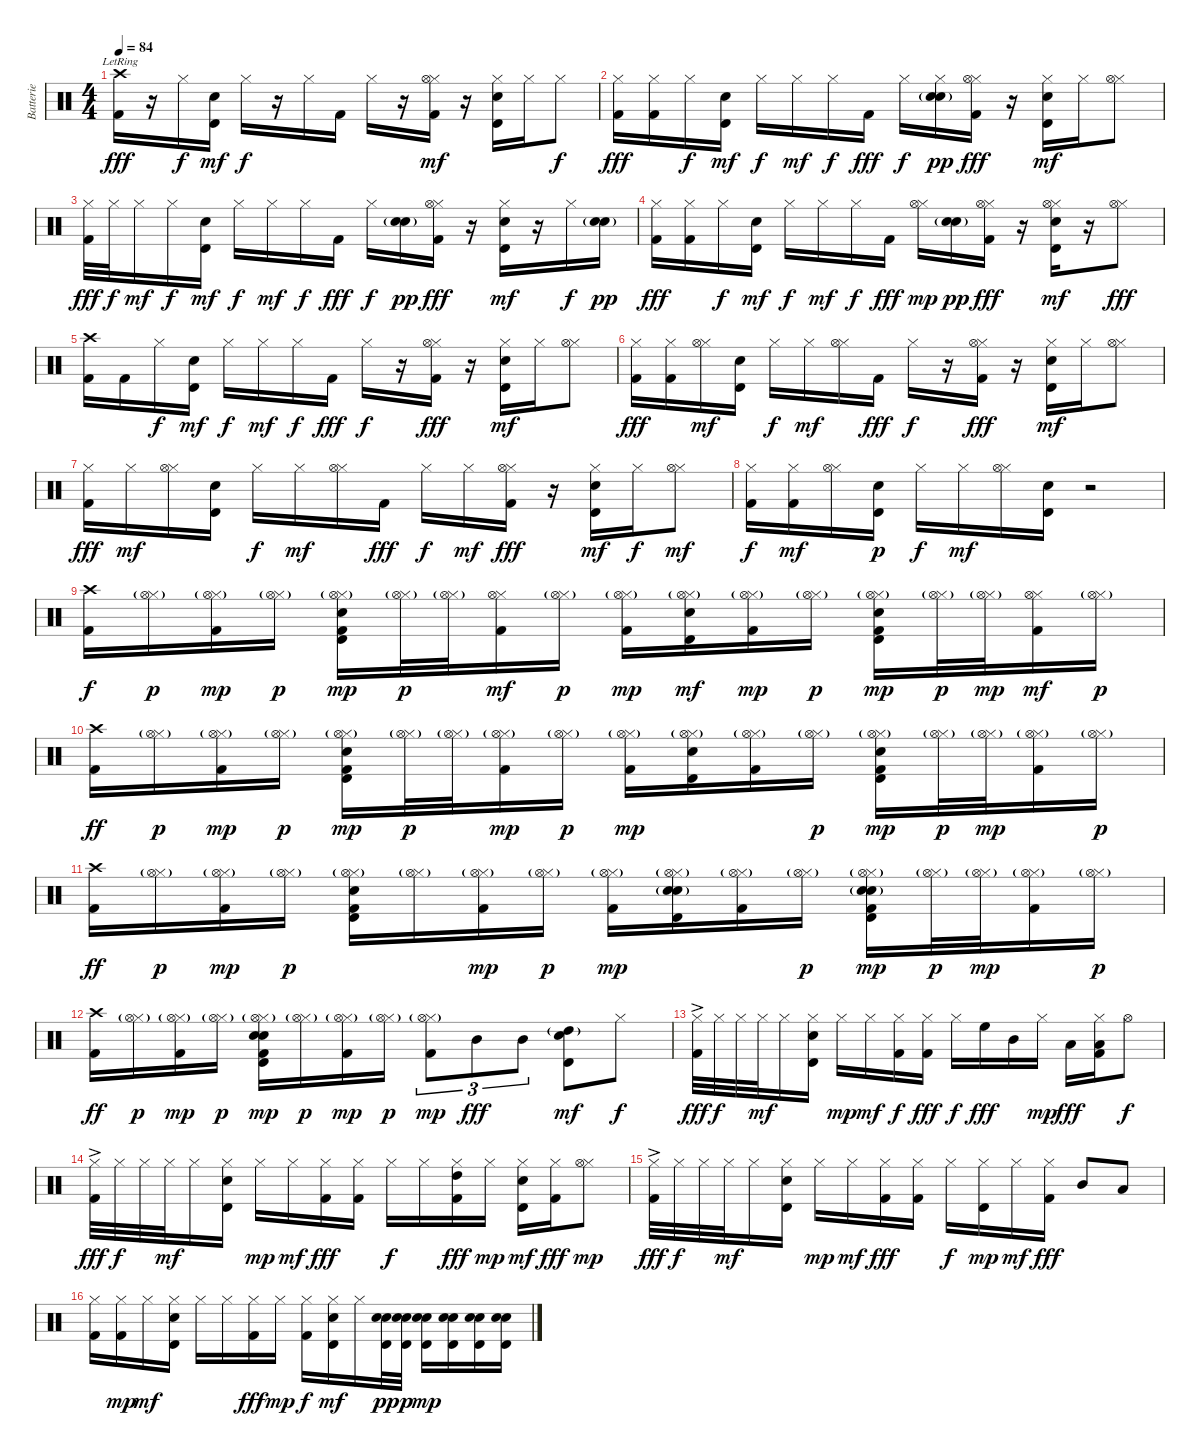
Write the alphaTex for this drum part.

\track ("Batterie" "Batterie") {instrument percussion}
\staff {score}
\articulation defaults
\ts (4 4)
\tempo 84
\clef neutral
\ks c
("Crash high (hit)"{lr} "Kick (hit) 2").16{dy fff} r.16 "Hi-Hat (closed)".16{dy f} ("Electric Snare (hit)" "Timbale high (hit)").16{dy mf} "Hi-Hat (closed)".16{dy f} r.16 "Hi-Hat (closed)".16 "Kick (hit) 2".16 "Hi-Hat (closed)".16 r.16 ("Hi-Hat (closed)" "Hi-Hat (open)" "Kick (hit) 2").16{dy mf} r.16 ("Hi-Hat (closed)" "Electric Snare (hit)" "Timbale high (hit)").16 "Hi-Hat (closed)".16 "Hi-Hat (closed)".8{dy f} |
("Hi-Hat (closed)" "Kick (hit) 2").16{dy fff} ("Hi-Hat (closed)" "Kick (hit) 2").16 "Hi-Hat (closed)".16{dy f} ("Electric Snare (hit)" "Timbale high (hit)").16{dy mf} "Hi-Hat (closed)".16{dy f} "Hi-Hat (closed)".16{dy mf} "Hi-Hat (closed)".16{dy f} "Kick (hit) 2".16{dy fff} "Hi-Hat (closed)".16{dy f} ("Hi-Hat (closed)" "Electric Snare (hit)"{g} "Snare (hit) 2"{g}).16{dy pp} ("Hi-Hat (closed)" "Hi-Hat (open)" "Kick (hit) 2").16{dy fff} r.16 ("Hi-Hat (closed)" "Electric Snare (hit)" "Timbale high (hit)").16{dy mf} "Hi-Hat (closed)".16 ("Hi-Hat (closed)" "Hi-Hat (open)").8 |
("Hi-Hat (closed)" "Kick (hit) 2").32{dy fff} "Hi-Hat (closed)".32{dy f} "Hi-Hat (closed)".16{dy mf} "Hi-Hat (closed)".16{dy f} ("Electric Snare (hit)" "Timbale high (hit)").16{dy mf} "Hi-Hat (closed)".16{dy f} "Hi-Hat (closed)".16{dy mf} "Hi-Hat (closed)".16{dy f} "Kick (hit) 2".16{dy fff} "Hi-Hat (closed)".16{dy f} ("Electric Snare (hit)"{g} "Snare (hit) 2"{g}).16{dy pp} ("Hi-Hat (closed)" "Hi-Hat (open)" "Kick (hit) 2").16{dy fff} r.16 ("Hi-Hat (closed)" "Electric Snare (hit)" "Timbale high (hit)").16{dy mf} r.16 "Hi-Hat (closed)".16{dy f} ("Electric Snare (hit)"{g} "Snare (hit) 2"{g}).16{dy pp} |
("Hi-Hat (closed)" "Kick (hit) 2").16{dy fff} ("Hi-Hat (closed)" "Kick (hit) 2").16 "Hi-Hat (closed)".16{dy f} ("Electric Snare (hit)" "Timbale high (hit)").16{dy mf} "Hi-Hat (closed)".16{dy f} "Hi-Hat (closed)".16{dy mf} "Hi-Hat (closed)".16{dy f} "Kick (hit) 2".16{dy fff} ("Hi-Hat (closed)" "Hi-Hat (open)").16{dy mp} ("Electric Snare (hit)"{g} "Snare (hit) 2"{g}).16{dy pp} ("Hi-Hat (closed)" "Hi-Hat (open)" "Kick (hit) 2").16{dy fff} r.16 ("Hi-Hat (closed)" "Hi-Hat (open)" "Electric Snare (hit)" "Timbale high (hit)").16{dy mf} r.16 ("Hi-Hat (closed)" "Hi-Hat (open)").8{dy fff} |
("Crash high (hit)" "Kick (hit) 2").16 "Kick (hit) 2".16 "Hi-Hat (closed)".16{dy f} ("Electric Snare (hit)" "Timbale high (hit)").16{dy mf} "Hi-Hat (closed)".16{dy f} "Hi-Hat (closed)".16{dy mf} "Hi-Hat (closed)".16{dy f} "Kick (hit) 2".16{dy fff} "Hi-Hat (closed)".16{dy f} r.16 ("Hi-Hat (closed)" "Hi-Hat (open)" "Kick (hit) 2").16{dy fff} r.16 ("Hi-Hat (closed)" "Electric Snare (hit)" "Timbale high (hit)").16{dy mf} "Hi-Hat (closed)".16 ("Hi-Hat (closed)" "Hi-Hat (open)").8 |
("Hi-Hat (closed)" "Kick (hit) 2").16{dy fff} ("Hi-Hat (closed)" "Kick (hit) 2").16 ("Hi-Hat (closed)" "Hi-Hat (open)").16{dy mf} ("Electric Snare (hit)" "Timbale high (hit)").16 "Hi-Hat (closed)".16{dy f} "Hi-Hat (closed)".16{dy mf} ("Hi-Hat (closed)" "Hi-Hat (open)").16 "Kick (hit) 2".16{dy fff} "Hi-Hat (closed)".16{dy f} r.16 ("Hi-Hat (closed)" "Hi-Hat (open)" "Kick (hit) 2").16{dy fff} r.16 ("Hi-Hat (closed)" "Electric Snare (hit)" "Timbale high (hit)").16{dy mf} "Hi-Hat (closed)".16 ("Hi-Hat (closed)" "Hi-Hat (open)").8 |
("Hi-Hat (closed)" "Kick (hit) 2").16{dy fff} "Hi-Hat (closed)".16{dy mf} ("Hi-Hat (closed)" "Hi-Hat (open)").16 ("Electric Snare (hit)" "Timbale high (hit)").16 "Hi-Hat (closed)".16{dy f} "Hi-Hat (closed)".16{dy mf} ("Hi-Hat (closed)" "Hi-Hat (open)").16 "Kick (hit) 2".16{dy fff} "Hi-Hat (closed)".16{dy f} "Hi-Hat (closed)".16{dy mf} ("Hi-Hat (closed)" "Hi-Hat (open)" "Kick (hit) 2").16{dy fff} r.16 ("Hi-Hat (closed)" "Electric Snare (hit)" "Timbale high (hit)").16{dy mf} "Hi-Hat (closed)".16{dy f} ("Hi-Hat (closed)" "Hi-Hat (open)").8{dy mf} |
("Hi-Hat (closed)" "Kick (hit) 2").16{dy f} ("Hi-Hat (closed)" "Kick (hit) 2").16{dy mf} ("Hi-Hat (closed)" "Hi-Hat (open)").16 ("Electric Snare (hit)" "Timbale high (hit)").16{dy p} "Hi-Hat (closed)".16{dy f} "Hi-Hat (closed)".16{dy mf} ("Hi-Hat (closed)" "Hi-Hat (open)").16 ("Electric Snare (hit)" "Timbale high (hit)").16 r.2 |
("Crash high (hit)" "Kick (hit) 2").16{dy f} ("Hi-Hat (closed)" "Hi-Hat (open)"{g}).16{dy p} ("Hi-Hat (closed)" "Hi-Hat (open)"{g} "Kick (hit) 2").16{dy mp} ("Hi-Hat (closed)" "Hi-Hat (open)"{g}).16{dy p} ("Hi-Hat (closed)" "Hi-Hat (open)"{g} "Electric Snare (hit)" "Timbale high (hit)" "Kick (hit) 2").16{dy mp} ("Hi-Hat (closed)" "Hi-Hat (open)"{g}).32{dy p} ("Hi-Hat (closed)" "Hi-Hat (open)"{g}).32 ("Hi-Hat (closed)" "Hi-Hat (open)" "Kick (hit) 2").16{dy mf} ("Hi-Hat (closed)" "Hi-Hat (open)"{g}).16{dy p} ("Hi-Hat (closed)" "Hi-Hat (open)"{g} "Kick (hit) 2").16{dy mp} ("Hi-Hat (closed)" "Hi-Hat (open)"{g} "Electric Snare (hit)" "Timbale high (hit)").16{dy mf} ("Hi-Hat (closed)" "Hi-Hat (open)"{g} "Kick (hit) 2").16{dy mp} ("Hi-Hat (closed)" "Hi-Hat (open)"{g}).16{dy p} ("Hi-Hat (closed)" "Hi-Hat (open)"{g} "Electric Snare (hit)" "Timbale high (hit)" "Kick (hit) 2").16{dy mp} ("Hi-Hat (closed)" "Hi-Hat (open)"{g}).32{dy p} ("Hi-Hat (closed)" "Hi-Hat (open)"{g}).32{dy mp} ("Hi-Hat (closed)" "Hi-Hat (open)" "Kick (hit) 2").16{dy mf} ("Hi-Hat (closed)" "Hi-Hat (open)"{g}).16{dy p} |
("Crash high (hit)" "Kick (hit) 2").16{dy ff} ("Hi-Hat (closed)" "Hi-Hat (open)"{g}).16{dy p} ("Hi-Hat (closed)" "Hi-Hat (open)"{g} "Kick (hit) 2").16{dy mp} ("Hi-Hat (closed)" "Hi-Hat (open)"{g}).16{dy p} ("Hi-Hat (closed)" "Hi-Hat (open)"{g} "Electric Snare (hit)" "Timbale high (hit)" "Kick (hit) 2").16{dy mp} ("Hi-Hat (closed)" "Hi-Hat (open)"{g}).32{dy p} ("Hi-Hat (closed)" "Hi-Hat (open)"{g}).32 ("Hi-Hat (closed)" "Hi-Hat (open)"{g} "Kick (hit) 2").16{dy mp} ("Hi-Hat (closed)" "Hi-Hat (open)"{g}).16{dy p} ("Hi-Hat (closed)" "Hi-Hat (open)"{g} "Kick (hit) 2").16{dy mp} ("Hi-Hat (closed)" "Hi-Hat (open)"{g} "Electric Snare (hit)" "Timbale high (hit)").16 ("Hi-Hat (closed)" "Hi-Hat (open)"{g} "Kick (hit) 2").16 ("Hi-Hat (closed)" "Hi-Hat (open)"{g}).16{dy p} ("Hi-Hat (closed)" "Hi-Hat (open)"{g} "Electric Snare (hit)" "Timbale high (hit)" "Kick (hit) 2").16{dy mp} ("Hi-Hat (closed)" "Hi-Hat (open)"{g}).32{dy p} ("Hi-Hat (closed)" "Hi-Hat (open)"{g}).32{dy mp} ("Hi-Hat (closed)" "Hi-Hat (open)"{g} "Kick (hit) 2").16 ("Hi-Hat (closed)" "Hi-Hat (open)"{g}).16{dy p} |
("Crash high (hit)" "Kick (hit) 2").16{dy ff} ("Hi-Hat (closed)" "Hi-Hat (open)"{g}).16{dy p} ("Hi-Hat (closed)" "Hi-Hat (open)"{g} "Kick (hit) 2").16{dy mp} ("Hi-Hat (closed)" "Hi-Hat (open)"{g}).16{dy p} ("Hi-Hat (closed)" "Hi-Hat (open)"{g} "Electric Snare (hit)" "Timbale high (hit)" "Kick (hit) 2").16 ("Hi-Hat (closed)" "Hi-Hat (open)"{g}).16 ("Hi-Hat (closed)" "Hi-Hat (open)"{g} "Kick (hit) 2").16{dy mp} ("Hi-Hat (closed)" "Hi-Hat (open)"{g}).16{dy p} ("Hi-Hat (closed)" "Hi-Hat (open)"{g} "Kick (hit) 2").16{dy mp} ("Hi-Hat (closed)" "Hi-Hat (open)"{g} "Electric Snare (hit)" "Timbale high (hit)" "Snare (hit) 2"{g}).16 ("Hi-Hat (closed)" "Hi-Hat (open)"{g} "Kick (hit) 2").16 ("Hi-Hat (closed)" "Hi-Hat (open)"{g}).16{dy p} ("Hi-Hat (closed)" "Hi-Hat (open)"{g} "Electric Snare (hit)" "Timbale high (hit)" "Snare (hit) 2"{g} "Kick (hit) 2").16{dy mp} ("Hi-Hat (closed)" "Hi-Hat (open)"{g}).32{dy p} ("Hi-Hat (closed)" "Hi-Hat (open)"{g}).32{dy mp} ("Hi-Hat (closed)" "Hi-Hat (open)"{g} "Kick (hit) 2").16 ("Hi-Hat (closed)" "Hi-Hat (open)"{g}).16{dy p} |
("Crash high (hit)" "Kick (hit) 2").16{dy ff} ("Hi-Hat (closed)" "Hi-Hat (open)"{g}).16{dy p} ("Hi-Hat (closed)" "Hi-Hat (open)"{g} "Kick (hit) 2").16{dy mp} ("Hi-Hat (closed)" "Hi-Hat (open)"{g}).16{dy p} ("Hi-Hat (closed)" "Hi-Hat (open)"{g} "Electric Snare (hit)" "Timbale high (hit)" "Snare (hit) 2" "Kick (hit) 2").16{dy mp} ("Hi-Hat (closed)" "Hi-Hat (open)"{g}).16{dy p} ("Hi-Hat (closed)" "Hi-Hat (open)"{g} "Kick (hit) 2").16{dy mp} ("Hi-Hat (closed)" "Hi-Hat (open)"{g}).16{dy p} ("Hi-Hat (closed)" "Hi-Hat (open)"{g} "Kick (hit) 2").8{tu (3 2) dy mp} "Mid Tom (hit)".8{tu (3 2) dy fff} "Mid Tom (hit)".8{tu (3 2)} ("High Tom (hit)"{g} "Electric Snare (hit)" "Timbale high (hit)").8{dy mf} "Hi-Hat (closed)".8{dy f} |
("Hi-Hat (closed)"{ac} "Kick (hit) 2").32{dy fff} "Hi-Hat (closed)".32{dy f} "Hi-Hat (closed)".32 "Hi-Hat (closed)".32{dy mf} "Hi-Hat (closed)".16 ("Hi-Hat (closed)" "Electric Snare (hit)" "Timbale high (hit)").16 "Hi-Hat (closed)".16{dy mp} "Hi-Hat (closed)".16{dy mf} ("Hi-Hat (closed)" "Kick (hit) 2").16{dy f} ("Hi-Hat (closed)" "Kick (hit) 2").16{dy fff} "Hi-Hat (closed)".16{dy f} "High Floor Tom (hit)".16{dy fff} "Mid Tom (hit)".16 "Hi-Hat (closed)".16{dy mp} "Low Tom (hit)".16{dy fff} ("Hi-Hat (closed)" "Low Floor Tom (hit)" "Kick (hit) 2").16 "Hi-Hat (open)".8{dy f} |
("Hi-Hat (closed)"{ac} "Kick (hit) 2").32{dy fff} "Hi-Hat (closed)".32{dy f} "Hi-Hat (closed)".32 "Hi-Hat (closed)".32{dy mf} "Hi-Hat (closed)".16 ("Hi-Hat (closed)" "Electric Snare (hit)" "Timbale high (hit)").16 "Hi-Hat (closed)".16{dy mp} "Hi-Hat (closed)".16{dy mf} ("Hi-Hat (closed)" "Kick (hit) 2").16{dy fff} ("Hi-Hat (closed)" "Kick (hit) 2").16 "Hi-Hat (closed)".16{dy f} "Hi-Hat (closed)".16 ("Hi-Hat (closed)" "High Tom (hit)" "Kick (hit) 2").16{dy fff} "Hi-Hat (closed)".16{dy mp} ("Hi-Hat (closed)" "Electric Snare (hit)" "Timbale high (hit)").16{dy mf} ("Hi-Hat (closed)" "Kick (hit) 2").16{dy fff} ("Hi-Hat (closed)" "Hi-Hat (open)").8{dy mp} |
("Hi-Hat (closed)"{ac} "Kick (hit) 2").32{dy fff} "Hi-Hat (closed)".32{dy f} "Hi-Hat (closed)".32 "Hi-Hat (closed)".32{dy mf} "Hi-Hat (closed)".16 ("Hi-Hat (closed)" "Electric Snare (hit)" "Timbale high (hit)").16 "Hi-Hat (closed)".16{dy mp} "Hi-Hat (closed)".16{dy mf} ("Hi-Hat (closed)" "Kick (hit) 2").16{dy fff} ("Hi-Hat (closed)" "Kick (hit) 2").16 "Hi-Hat (closed)".16{dy f} ("Hi-Hat (closed)" "Timbale high (hit)").16{dy mp} "Hi-Hat (closed)".16{dy mf} ("Hi-Hat (closed)" "Kick (hit) 2").16{dy fff} "Mid Tom (hit)".8 "Low Tom (hit)".8 |
("Hi-Hat (closed)" "Kick (hit) 2").16 ("Hi-Hat (closed)" "Kick (hit) 2").16{dy mp} "Hi-Hat (closed)".16{dy mf} ("Hi-Hat (closed)" "Electric Snare (hit)" "Timbale high (hit)").16 "Hi-Hat (closed)".16 "Hi-Hat (closed)".16 ("Hi-Hat (closed)" "Kick (hit) 2").16{dy fff} "Hi-Hat (closed)".16{dy mp} ("Hi-Hat (closed)" "Kick (hit) 2").16{dy f} ("Hi-Hat (closed)" "Electric Snare (hit)" "Timbale high (hit)").16{dy mf} "Hi-Hat (closed)".16 ("Electric Snare (hit)" "Timbale high (hit)" "Snare (hit) 2").32{dy pp} ("Electric Snare (hit)" "Timbale high (hit)" "Snare (hit) 2").32{dy p} ("Electric Snare (hit)" "Timbale high (hit)" "Snare (hit) 2").16{dy mp} ("Electric Snare (hit)" "Timbale high (hit)" "Snare (hit) 2").16 ("Electric Snare (hit)" "Timbale high (hit)" "Snare (hit) 2").16 ("Electric Snare (hit)" "Timbale high (hit)" "Snare (hit) 2").16
